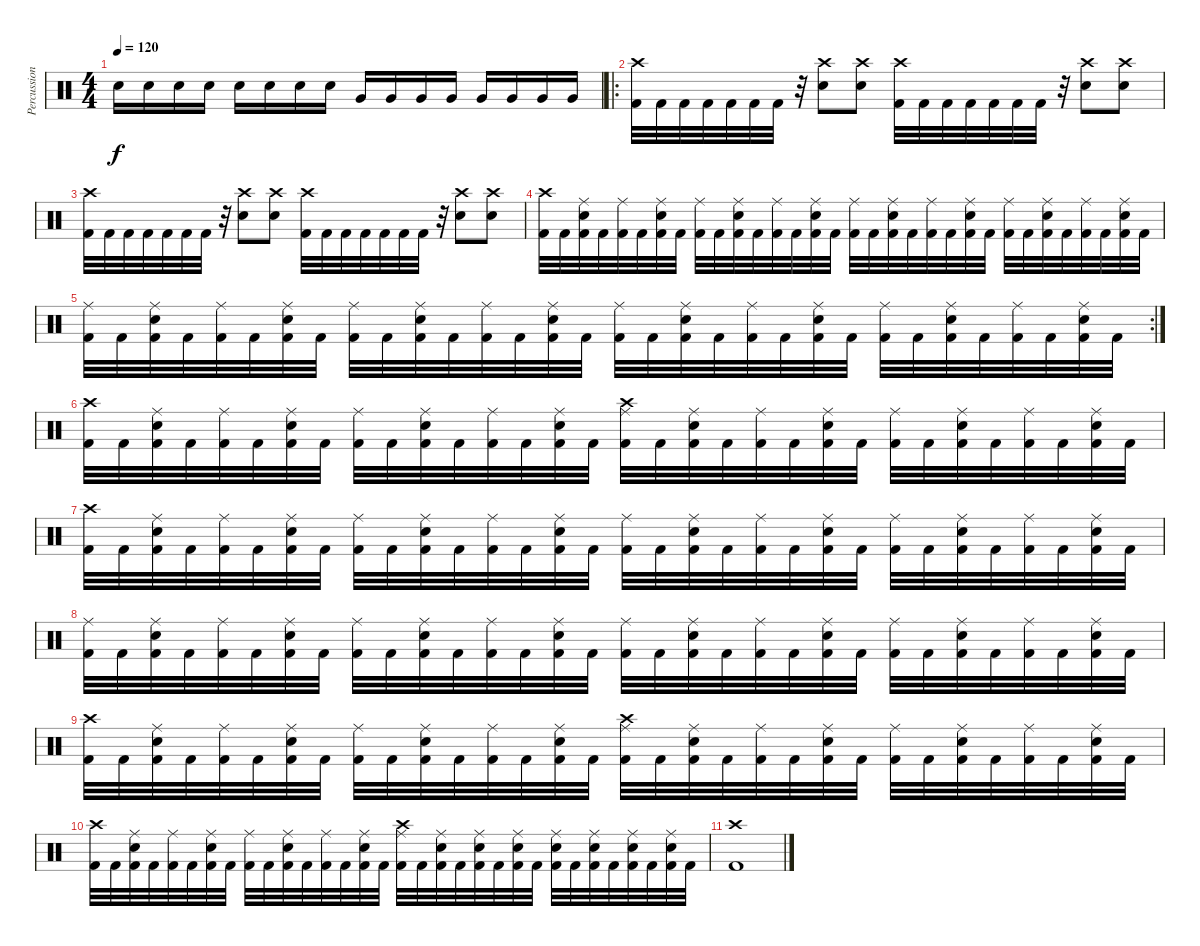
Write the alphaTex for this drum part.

\track ("Percussion" "Percussion") {instrument percussion}
\staff {score}
\articulation defaults
\ts (4 4)
\tempo 120
\clef neutral
\ks c "Snare (hit) 2".16{dy f} "Snare (hit) 2".16 "Snare (hit) 2".16 "Snare (hit) 2".16 "Snare (hit) 2".16 "Snare (hit) 2".16 "Snare (hit) 2".16 "Snare (hit) 2".16 "Very Low Tom (hit)".16 "Very Low Tom (hit)".16 "Very Low Tom (hit)".16 "Very Low Tom (hit)".16 "Very Low Tom (hit)".16 "Very Low Tom (hit)".16 "Very Low Tom (hit)".16 "Very Low Tom (hit)".16
|
\ro
("Crash high (hit)" "Kick (hit) 2").32 "Kick (hit) 2".32 "Kick (hit) 2".32 "Kick (hit) 2".32 "Kick (hit) 2".32 "Kick (hit) 2".32 "Kick (hit) 2".32 r.32 ("Crash high (hit)" "Snare (hit) 2").8 ("Crash high (hit)" "Snare (hit) 2").8 ("Crash high (hit)" "Kick (hit) 2").32 "Kick (hit) 2".32 "Kick (hit) 2".32 "Kick (hit) 2".32 "Kick (hit) 2".32 "Kick (hit) 2".32 "Kick (hit) 2".32 r.32 ("Crash high (hit)" "Snare (hit) 2").8 ("Crash high (hit)" "Snare (hit) 2").8 |
("Crash high (hit)" "Kick (hit) 2").32 "Kick (hit) 2".32 "Kick (hit) 2".32 "Kick (hit) 2".32 "Kick (hit) 2".32 "Kick (hit) 2".32 "Kick (hit) 2".32 r.32 ("Crash high (hit)" "Snare (hit) 2").8 ("Crash high (hit)" "Snare (hit) 2").8 ("Crash high (hit)" "Kick (hit) 2").32 "Kick (hit) 2".32 "Kick (hit) 2".32 "Kick (hit) 2".32 "Kick (hit) 2".32 "Kick (hit) 2".32 "Kick (hit) 2".32 r.32 ("Crash high (hit)" "Snare (hit) 2").8 ("Crash high (hit)" "Snare (hit) 2").8 |
("Crash high (hit)" "Kick (hit) 2").32 "Kick (hit) 2".32 ("Ride (middle)" "Snare (hit) 2" "Kick (hit) 2").32 "Kick (hit) 2".32 ("Ride (middle)" "Kick (hit) 2").32 "Kick (hit) 2".32 ("Ride (middle)" "Snare (hit) 2" "Kick (hit) 2").32 "Kick (hit) 2".32 ("Ride (middle)" "Kick (hit) 2").32 "Kick (hit) 2".32 ("Ride (middle)" "Snare (hit) 2" "Kick (hit) 2").32 "Kick (hit) 2".32 ("Ride (middle)" "Kick (hit) 2").32 "Kick (hit) 2".32 ("Ride (middle)" "Snare (hit) 2" "Kick (hit) 2").32 "Kick (hit) 2".32 ("Ride (middle)" "Kick (hit) 2").32 "Kick (hit) 2".32 ("Ride (middle)" "Snare (hit) 2" "Kick (hit) 2").32 "Kick (hit) 2".32 ("Ride (middle)" "Kick (hit) 2").32 "Kick (hit) 2".32 ("Ride (middle)" "Snare (hit) 2" "Kick (hit) 2").32 "Kick (hit) 2".32 ("Ride (middle)" "Kick (hit) 2").32 "Kick (hit) 2".32 ("Ride (middle)" "Snare (hit) 2" "Kick (hit) 2").32 "Kick (hit) 2".32 ("Ride (middle)" "Kick (hit) 2").32 "Kick (hit) 2".32 ("Ride (middle)" "Snare (hit) 2" "Kick (hit) 2").32 "Kick (hit) 2".32 |
\rc 2
("Ride (middle)" "Kick (hit) 2").32 "Kick (hit) 2".32 ("Ride (middle)" "Snare (hit) 2" "Kick (hit) 2").32 "Kick (hit) 2".32 ("Ride (middle)" "Kick (hit) 2").32 "Kick (hit) 2".32 ("Ride (middle)" "Snare (hit) 2" "Kick (hit) 2").32 "Kick (hit) 2".32 ("Ride (middle)" "Kick (hit) 2").32 "Kick (hit) 2".32 ("Ride (middle)" "Snare (hit) 2" "Kick (hit) 2").32 "Kick (hit) 2".32 ("Ride (middle)" "Kick (hit) 2").32 "Kick (hit) 2".32 ("Ride (middle)" "Snare (hit) 2" "Kick (hit) 2").32 "Kick (hit) 2".32 ("Ride (middle)" "Kick (hit) 2").32 "Kick (hit) 2".32 ("Ride (middle)" "Snare (hit) 2" "Kick (hit) 2").32 "Kick (hit) 2".32 ("Ride (middle)" "Kick (hit) 2").32 "Kick (hit) 2".32 ("Ride (middle)" "Snare (hit) 2" "Kick (hit) 2").32 "Kick (hit) 2".32 ("Ride (middle)" "Kick (hit) 2").32 "Kick (hit) 2".32 ("Ride (middle)" "Snare (hit) 2" "Kick (hit) 2").32 "Kick (hit) 2".32 ("Ride (middle)" "Kick (hit) 2").32 "Kick (hit) 2".32 ("Ride (middle)" "Snare (hit) 2" "Kick (hit) 2").32 "Kick (hit) 2".32 |
("Crash high (hit)" "Kick (hit) 2").32 "Kick (hit) 2".32 ("Ride (middle)" "Snare (hit) 2" "Kick (hit) 2").32 "Kick (hit) 2".32 ("Ride (middle)" "Kick (hit) 2").32 "Kick (hit) 2".32 ("Ride (middle)" "Snare (hit) 2" "Kick (hit) 2").32 "Kick (hit) 2".32 ("Ride (middle)" "Kick (hit) 2").32 "Kick (hit) 2".32 ("Ride (middle)" "Snare (hit) 2" "Kick (hit) 2").32 "Kick (hit) 2".32 ("Ride (middle)" "Kick (hit) 2").32 "Kick (hit) 2".32 ("Ride (middle)" "Snare (hit) 2" "Kick (hit) 2").32 "Kick (hit) 2".32 ("Crash high (hit)" "Ride (middle)" "Kick (hit) 2").32 "Kick (hit) 2".32 ("Ride (middle)" "Snare (hit) 2" "Kick (hit) 2").32 "Kick (hit) 2".32 ("Ride (middle)" "Kick (hit) 2").32 "Kick (hit) 2".32 ("Ride (middle)" "Snare (hit) 2" "Kick (hit) 2").32 "Kick (hit) 2".32 ("Ride (middle)" "Kick (hit) 2").32 "Kick (hit) 2".32 ("Ride (middle)" "Snare (hit) 2" "Kick (hit) 2").32 "Kick (hit) 2".32 ("Ride (middle)" "Kick (hit) 2").32 "Kick (hit) 2".32 ("Ride (middle)" "Snare (hit) 2" "Kick (hit) 2").32 "Kick (hit) 2".32 |
("Crash high (hit)" "Kick (hit) 2").32 "Kick (hit) 2".32 ("Ride (middle)" "Snare (hit) 2" "Kick (hit) 2").32 "Kick (hit) 2".32 ("Ride (middle)" "Kick (hit) 2").32 "Kick (hit) 2".32 ("Ride (middle)" "Snare (hit) 2" "Kick (hit) 2").32 "Kick (hit) 2".32 ("Ride (middle)" "Kick (hit) 2").32 "Kick (hit) 2".32 ("Ride (middle)" "Snare (hit) 2" "Kick (hit) 2").32 "Kick (hit) 2".32 ("Ride (middle)" "Kick (hit) 2").32 "Kick (hit) 2".32 ("Ride (middle)" "Snare (hit) 2" "Kick (hit) 2").32 "Kick (hit) 2".32 ("Ride (middle)" "Kick (hit) 2").32 "Kick (hit) 2".32 ("Ride (middle)" "Snare (hit) 2" "Kick (hit) 2").32 "Kick (hit) 2".32 ("Ride (middle)" "Kick (hit) 2").32 "Kick (hit) 2".32 ("Ride (middle)" "Snare (hit) 2" "Kick (hit) 2").32 "Kick (hit) 2".32 ("Ride (middle)" "Kick (hit) 2").32 "Kick (hit) 2".32 ("Ride (middle)" "Snare (hit) 2" "Kick (hit) 2").32 "Kick (hit) 2".32 ("Ride (middle)" "Kick (hit) 2").32 "Kick (hit) 2".32 ("Ride (middle)" "Snare (hit) 2" "Kick (hit) 2").32 "Kick (hit) 2".32 |
("Ride (middle)" "Kick (hit) 2").32 "Kick (hit) 2".32 ("Ride (middle)" "Snare (hit) 2" "Kick (hit) 2").32 "Kick (hit) 2".32 ("Ride (middle)" "Kick (hit) 2").32 "Kick (hit) 2".32 ("Ride (middle)" "Snare (hit) 2" "Kick (hit) 2").32 "Kick (hit) 2".32 ("Ride (middle)" "Kick (hit) 2").32 "Kick (hit) 2".32 ("Ride (middle)" "Snare (hit) 2" "Kick (hit) 2").32 "Kick (hit) 2".32 ("Ride (middle)" "Kick (hit) 2").32 "Kick (hit) 2".32 ("Ride (middle)" "Snare (hit) 2" "Kick (hit) 2").32 "Kick (hit) 2".32 ("Ride (middle)" "Kick (hit) 2").32 "Kick (hit) 2".32 ("Ride (middle)" "Snare (hit) 2" "Kick (hit) 2").32 "Kick (hit) 2".32 ("Ride (middle)" "Kick (hit) 2").32 "Kick (hit) 2".32 ("Ride (middle)" "Snare (hit) 2" "Kick (hit) 2").32 "Kick (hit) 2".32 ("Ride (middle)" "Kick (hit) 2").32 "Kick (hit) 2".32 ("Ride (middle)" "Snare (hit) 2" "Kick (hit) 2").32 "Kick (hit) 2".32 ("Ride (middle)" "Kick (hit) 2").32 "Kick (hit) 2".32 ("Ride (middle)" "Snare (hit) 2" "Kick (hit) 2").32 "Kick (hit) 2".32 |
("Crash high (hit)" "Kick (hit) 2").32 "Kick (hit) 2".32 ("Ride (middle)" "Snare (hit) 2" "Kick (hit) 2").32 "Kick (hit) 2".32 ("Ride (middle)" "Kick (hit) 2").32 "Kick (hit) 2".32 ("Ride (middle)" "Snare (hit) 2" "Kick (hit) 2").32 "Kick (hit) 2".32 ("Ride (middle)" "Kick (hit) 2").32 "Kick (hit) 2".32 ("Ride (middle)" "Snare (hit) 2" "Kick (hit) 2").32 "Kick (hit) 2".32 ("Ride (middle)" "Kick (hit) 2").32 "Kick (hit) 2".32 ("Ride (middle)" "Snare (hit) 2" "Kick (hit) 2").32 "Kick (hit) 2".32 ("Crash high (hit)" "Ride (middle)" "Kick (hit) 2").32 "Kick (hit) 2".32 ("Ride (middle)" "Snare (hit) 2" "Kick (hit) 2").32 "Kick (hit) 2".32 ("Ride (middle)" "Kick (hit) 2").32 "Kick (hit) 2".32 ("Ride (middle)" "Snare (hit) 2" "Kick (hit) 2").32 "Kick (hit) 2".32 ("Ride (middle)" "Kick (hit) 2").32 "Kick (hit) 2".32 ("Ride (middle)" "Snare (hit) 2" "Kick (hit) 2").32 "Kick (hit) 2".32 ("Ride (middle)" "Kick (hit) 2").32 "Kick (hit) 2".32 ("Ride (middle)" "Snare (hit) 2" "Kick (hit) 2").32 "Kick (hit) 2".32 |
("Crash high (hit)" "Kick (hit) 2").32 "Kick (hit) 2".32 ("Ride (middle)" "Snare (hit) 2" "Kick (hit) 2").32 "Kick (hit) 2".32 ("Ride (middle)" "Kick (hit) 2").32 "Kick (hit) 2".32 ("Ride (middle)" "Snare (hit) 2" "Kick (hit) 2").32 "Kick (hit) 2".32 ("Ride (middle)" "Kick (hit) 2").32 "Kick (hit) 2".32 ("Ride (middle)" "Snare (hit) 2" "Kick (hit) 2").32 "Kick (hit) 2".32 ("Ride (middle)" "Kick (hit) 2").32 "Kick (hit) 2".32 ("Ride (middle)" "Snare (hit) 2" "Kick (hit) 2").32 "Kick (hit) 2".32 ("Crash high (hit)" "Ride (middle)" "Kick (hit) 2").32 "Kick (hit) 2".32 ("Ride (middle)" "Snare (hit) 2" "Kick (hit) 2").32 "Kick (hit) 2".32 ("Ride (middle)" "Snare (hit) 2" "Kick (hit) 2").32 "Kick (hit) 2".32 ("Ride (middle)" "Snare (hit) 2" "Kick (hit) 2").32 "Kick (hit) 2".32 ("Ride (middle)" "Snare (hit) 2" "Kick (hit) 2").32 "Kick (hit) 2".32 ("Ride (middle)" "Snare (hit) 2" "Kick (hit) 2").32 "Kick (hit) 2".32 ("Ride (middle)" "Snare (hit) 2" "Kick (hit) 2").32 "Kick (hit) 2".32 ("Ride (middle)" "Snare (hit) 2" "Kick (hit) 2").32 "Kick (hit) 2".32 |
("Crash high (hit)" "Kick (hit) 2").1
